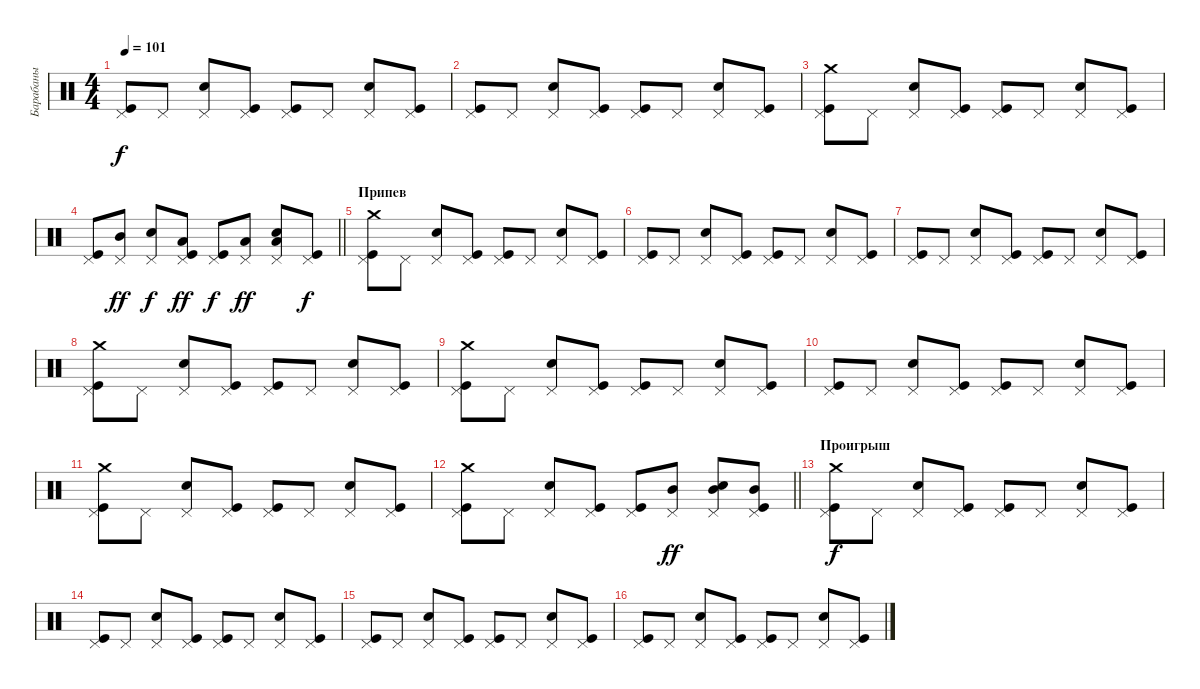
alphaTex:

\track ("Барабаны" "Барабаны") {instrument percussion}
\staff {score}
\articulation defaults
\ts (4 4)
\tempo 101
\clef neutral
\ks c
("Kick (hit)" "Pedal Hi-Hat (hit)").8{dy f} "Pedal Hi-Hat (hit)".8 ("Snare (hit) 2" "Pedal Hi-Hat (hit)").8 ("Kick (hit)" "Pedal Hi-Hat (hit)").8 ("Kick (hit)" "Pedal Hi-Hat (hit)").8 "Pedal Hi-Hat (hit)".8 ("Snare (hit) 2" "Pedal Hi-Hat (hit)").8 ("Kick (hit)" "Pedal Hi-Hat (hit)").8 |
("Kick (hit)" "Pedal Hi-Hat (hit)").8 "Pedal Hi-Hat (hit)".8 ("Snare (hit) 2" "Pedal Hi-Hat (hit)").8 ("Kick (hit)" "Pedal Hi-Hat (hit)").8 ("Kick (hit)" "Pedal Hi-Hat (hit)").8 "Pedal Hi-Hat (hit)".8 ("Snare (hit) 2" "Pedal Hi-Hat (hit)").8 ("Kick (hit)" "Pedal Hi-Hat (hit)").8 |
("Kick (hit)" "Pedal Hi-Hat (hit)" "Crash medium (hit)").8 "Pedal Hi-Hat (hit)".8 ("Snare (hit) 2" "Pedal Hi-Hat (hit)").8 ("Kick (hit)" "Pedal Hi-Hat (hit)").8 ("Kick (hit)" "Pedal Hi-Hat (hit)").8 "Pedal Hi-Hat (hit)".8 ("Snare (hit) 2" "Pedal Hi-Hat (hit)").8 ("Kick (hit)" "Pedal Hi-Hat (hit)").8 |
\barLineRight lightlight
("Kick (hit)" "Pedal Hi-Hat (hit)").8 ("Pedal Hi-Hat (hit)" "Mid Tom (hit)").8{dy ff} ("Snare (hit) 2" "Pedal Hi-Hat (hit)").8{dy f} ("Kick (hit)" "Pedal Hi-Hat (hit)" "Low Tom (hit)").8{dy ff} ("Kick (hit)" "Pedal Hi-Hat (hit)").8{dy f} ("Pedal Hi-Hat (hit)" "Low Tom (hit)").8{dy ff} ("Snare (hit) 2" "Pedal Hi-Hat (hit)" "Low Tom (hit)").8 ("Kick (hit)" "Pedal Hi-Hat (hit)").8{dy f} |
\section ("" "Припев")
("Kick (hit)" "Pedal Hi-Hat (hit)" "Crash medium (hit)").8 "Pedal Hi-Hat (hit)".8 ("Snare (hit) 2" "Pedal Hi-Hat (hit)").8 ("Kick (hit)" "Pedal Hi-Hat (hit)").8 ("Kick (hit)" "Pedal Hi-Hat (hit)").8 "Pedal Hi-Hat (hit)".8 ("Snare (hit) 2" "Pedal Hi-Hat (hit)").8 ("Kick (hit)" "Pedal Hi-Hat (hit)").8 |
("Kick (hit)" "Pedal Hi-Hat (hit)").8 "Pedal Hi-Hat (hit)".8 ("Snare (hit) 2" "Pedal Hi-Hat (hit)").8 ("Kick (hit)" "Pedal Hi-Hat (hit)").8 ("Kick (hit)" "Pedal Hi-Hat (hit)").8 "Pedal Hi-Hat (hit)".8 ("Snare (hit) 2" "Pedal Hi-Hat (hit)").8 ("Kick (hit)" "Pedal Hi-Hat (hit)").8 |
("Kick (hit)" "Pedal Hi-Hat (hit)").8 "Pedal Hi-Hat (hit)".8 ("Snare (hit) 2" "Pedal Hi-Hat (hit)").8 ("Kick (hit)" "Pedal Hi-Hat (hit)").8 ("Kick (hit)" "Pedal Hi-Hat (hit)").8 "Pedal Hi-Hat (hit)".8 ("Snare (hit) 2" "Pedal Hi-Hat (hit)").8 ("Kick (hit)" "Pedal Hi-Hat (hit)").8 |
("Kick (hit)" "Pedal Hi-Hat (hit)" "Crash medium (hit)").8 "Pedal Hi-Hat (hit)".8 ("Snare (hit) 2" "Pedal Hi-Hat (hit)").8 ("Kick (hit)" "Pedal Hi-Hat (hit)").8 ("Kick (hit)" "Pedal Hi-Hat (hit)").8 "Pedal Hi-Hat (hit)".8 ("Snare (hit) 2" "Pedal Hi-Hat (hit)").8 ("Kick (hit)" "Pedal Hi-Hat (hit)").8 |
("Kick (hit)" "Pedal Hi-Hat (hit)" "Crash medium (hit)").8 "Pedal Hi-Hat (hit)".8 ("Snare (hit) 2" "Pedal Hi-Hat (hit)").8 ("Kick (hit)" "Pedal Hi-Hat (hit)").8 ("Kick (hit)" "Pedal Hi-Hat (hit)").8 "Pedal Hi-Hat (hit)".8 ("Snare (hit) 2" "Pedal Hi-Hat (hit)").8 ("Kick (hit)" "Pedal Hi-Hat (hit)").8 |
("Kick (hit)" "Pedal Hi-Hat (hit)").8 "Pedal Hi-Hat (hit)".8 ("Snare (hit) 2" "Pedal Hi-Hat (hit)").8 ("Kick (hit)" "Pedal Hi-Hat (hit)").8 ("Kick (hit)" "Pedal Hi-Hat (hit)").8 "Pedal Hi-Hat (hit)".8 ("Snare (hit) 2" "Pedal Hi-Hat (hit)").8 ("Kick (hit)" "Pedal Hi-Hat (hit)").8 |
("Kick (hit)" "Pedal Hi-Hat (hit)" "Crash medium (hit)").8 "Pedal Hi-Hat (hit)".8 ("Snare (hit) 2" "Pedal Hi-Hat (hit)").8 ("Kick (hit)" "Pedal Hi-Hat (hit)").8 ("Kick (hit)" "Pedal Hi-Hat (hit)").8 "Pedal Hi-Hat (hit)".8 ("Snare (hit) 2" "Pedal Hi-Hat (hit)").8 ("Kick (hit)" "Pedal Hi-Hat (hit)").8 |
\barLineRight lightlight
("Kick (hit)" "Pedal Hi-Hat (hit)" "Crash medium (hit)").8 "Pedal Hi-Hat (hit)".8 ("Snare (hit) 2" "Pedal Hi-Hat (hit)").8 ("Kick (hit)" "Pedal Hi-Hat (hit)").8 ("Kick (hit)" "Pedal Hi-Hat (hit)").8 ("Pedal Hi-Hat (hit)" "Mid Tom (hit)").8{dy ff} ("Snare (hit) 2" "Pedal Hi-Hat (hit)" "Mid Tom (hit)").8 ("Kick (hit)" "Pedal Hi-Hat (hit)" "Mid Tom (hit)").8 |
\section ("" "Проигрыш")
("Kick (hit)" "Pedal Hi-Hat (hit)" "Crash medium (hit)").8{dy f} "Pedal Hi-Hat (hit)".8 ("Snare (hit) 2" "Pedal Hi-Hat (hit)").8 ("Kick (hit)" "Pedal Hi-Hat (hit)").8 ("Kick (hit)" "Pedal Hi-Hat (hit)").8 "Pedal Hi-Hat (hit)".8 ("Snare (hit) 2" "Pedal Hi-Hat (hit)").8 ("Kick (hit)" "Pedal Hi-Hat (hit)").8 |
("Kick (hit)" "Pedal Hi-Hat (hit)").8 "Pedal Hi-Hat (hit)".8 ("Snare (hit) 2" "Pedal Hi-Hat (hit)").8 ("Kick (hit)" "Pedal Hi-Hat (hit)").8 ("Kick (hit)" "Pedal Hi-Hat (hit)").8 "Pedal Hi-Hat (hit)".8 ("Snare (hit) 2" "Pedal Hi-Hat (hit)").8 ("Kick (hit)" "Pedal Hi-Hat (hit)").8 |
("Kick (hit)" "Pedal Hi-Hat (hit)").8 "Pedal Hi-Hat (hit)".8 ("Snare (hit) 2" "Pedal Hi-Hat (hit)").8 ("Kick (hit)" "Pedal Hi-Hat (hit)").8 ("Kick (hit)" "Pedal Hi-Hat (hit)").8 "Pedal Hi-Hat (hit)".8 ("Snare (hit) 2" "Pedal Hi-Hat (hit)").8 ("Kick (hit)" "Pedal Hi-Hat (hit)").8 |
("Kick (hit)" "Pedal Hi-Hat (hit)").8 "Pedal Hi-Hat (hit)".8 ("Snare (hit) 2" "Pedal Hi-Hat (hit)").8 ("Kick (hit)" "Pedal Hi-Hat (hit)").8 ("Kick (hit)" "Pedal Hi-Hat (hit)").8 "Pedal Hi-Hat (hit)".8 ("Snare (hit) 2" "Pedal Hi-Hat (hit)").8 ("Kick (hit)" "Pedal Hi-Hat (hit)").8
